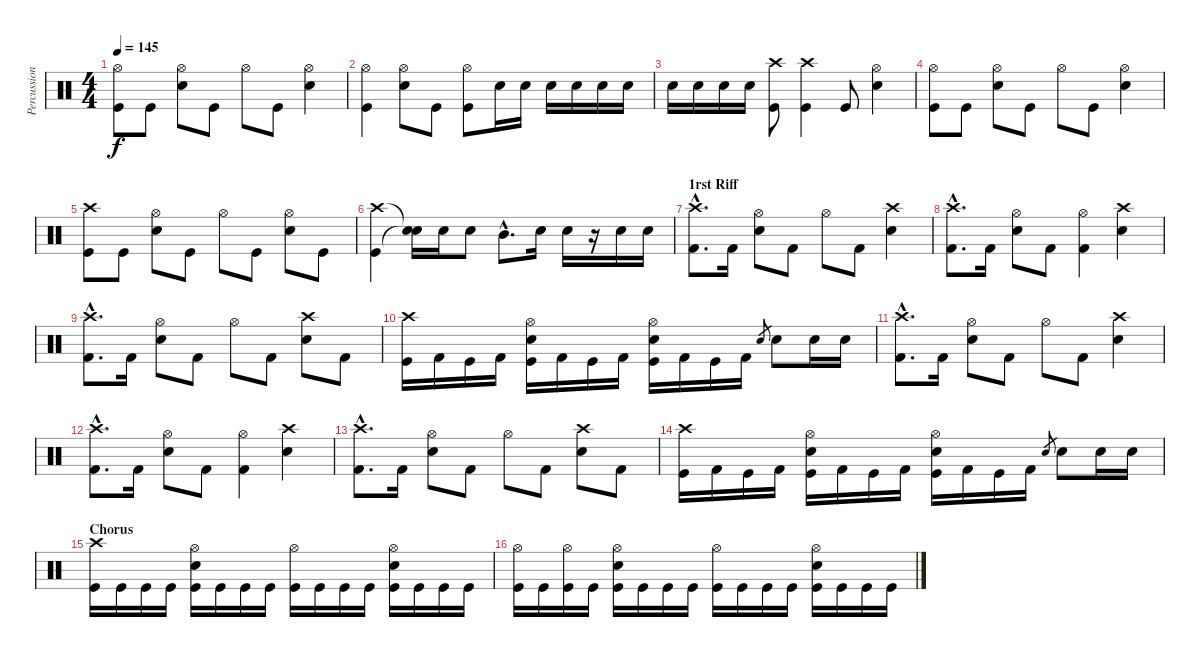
\track ("Percussions" "Percussion") {instrument percussion}
\staff {score}
\articulation defaults
\ts (4 4)
\tempo 145
\clef neutral
\ks c
("Hi-Hat (open)" "Kick (hit)").8{dy f} "Kick (hit)".8 ("Hi-Hat (open)" "Snare (hit) 2").8 "Kick (hit)".8 "Hi-Hat (open)".8 "Kick (hit)".8 ("Hi-Hat (open)" "Snare (hit) 2").4 |
("Hi-Hat (open)" "Kick (hit)").4 ("Hi-Hat (open)" "Snare (hit) 2").8 "Kick (hit)".8 ("Hi-Hat (open)" "Kick (hit)").8 "Snare (hit) 2".16 "Snare (hit) 2".16 "Snare (hit) 2".16 "Snare (hit) 2".16 "Snare (hit) 2".16 "Snare (hit) 2".16 |
"Snare (hit) 2".16 "Snare (hit) 2".16 "Snare (hit) 2".16 "Snare (hit) 2".16 ("Crash high (hit)" "Kick (hit)").8 ("Crash high (hit)" "Kick (hit)").4 "Kick (hit)".8 ("Hi-Hat (open)" "Snare (hit) 2").4 |
("Hi-Hat (open)" "Kick (hit)").8 "Kick (hit)".8 ("Hi-Hat (open)" "Snare (hit) 2").8 "Kick (hit)".8 "Hi-Hat (open)".8 "Kick (hit)".8 ("Hi-Hat (open)" "Snare (hit) 2").4 |
("Crash high (hit)" "Kick (hit)").8 "Kick (hit)".8 ("Hi-Hat (open)" "Snare (hit) 2").8 "Kick (hit)".8 "Hi-Hat (open)".8 "Kick (hit)".8 ("Hi-Hat (open)" "Snare (hit) 2").8 "Kick (hit)".8 |
("Crash high (hit)" "Kick (hit)").4 ("Snare (hit)"{t} "Snare (hit)"{t}).16 "Snare (hit) 2".16 "Snare (hit) 2".8 "Mid Tom (hit)"{hac}.8{d} "Snare (hit) 2".16 "Snare (hit) 2".16 r.16 "Snare (hit) 2".16 "Snare (hit) 2".16 |
\section ("" "1rst Riff")
("Crash high (hit)"{hac} "Kick (hit) 2"{hac}).8{d} "Kick (hit) 2".16 ("Hi-Hat (open)" "Electric Snare (hit)").8 "Kick (hit) 2".8 "Hi-Hat (open)".8 "Kick (hit) 2".8 ("Crash high (hit)" "Electric Snare (hit)").4 |
("Crash high (hit)"{hac} "Kick (hit) 2"{hac}).8{d} "Kick (hit) 2".16 ("Hi-Hat (open)" "Electric Snare (hit)").8 "Kick (hit) 2".8 ("Hi-Hat (open)" "Kick (hit) 2").4 ("Crash high (hit)" "Electric Snare (hit)").4 |
("Crash high (hit)"{hac} "Kick (hit) 2"{hac}).8{d} "Kick (hit) 2".16 ("Hi-Hat (open)" "Electric Snare (hit)").8 "Kick (hit) 2".8 "Hi-Hat (open)".8 "Kick (hit) 2".8 ("Crash high (hit)" "Electric Snare (hit)").8 "Kick (hit) 2".8 |
("Crash high (hit)" "Kick (hit)").16 "Kick (hit) 2".16 "Kick (hit)".16 "Kick (hit) 2".16 ("Hi-Hat (open)" "Electric Snare (hit)" "Kick (hit)").16 "Kick (hit) 2".16 "Kick (hit)".16 "Kick (hit) 2".16 ("Hi-Hat (open)" "Electric Snare (hit)" "Kick (hit)").16 "Kick (hit) 2".16 "Kick (hit)".16 "Kick (hit) 2".16 "Electric Snare (hit)".8{gr} "Electric Snare (hit)".8 "Electric Snare (hit)".16 "Electric Snare (hit)".16 |
("Crash high (hit)"{hac} "Kick (hit) 2"{hac}).8{d} "Kick (hit) 2".16 ("Hi-Hat (open)" "Electric Snare (hit)").8 "Kick (hit) 2".8 "Hi-Hat (open)".8 "Kick (hit) 2".8 ("Crash high (hit)" "Electric Snare (hit)").4 |
("Crash high (hit)"{hac} "Kick (hit) 2"{hac}).8{d} "Kick (hit) 2".16 ("Hi-Hat (open)" "Electric Snare (hit)").8 "Kick (hit) 2".8 ("Hi-Hat (open)" "Kick (hit) 2").4 ("Crash high (hit)" "Electric Snare (hit)").4 |
("Crash high (hit)"{hac} "Kick (hit) 2"{hac}).8{d} "Kick (hit) 2".16 ("Hi-Hat (open)" "Electric Snare (hit)").8 "Kick (hit) 2".8 "Hi-Hat (open)".8 "Kick (hit) 2".8 ("Crash high (hit)" "Electric Snare (hit)").8 "Kick (hit) 2".8 |
("Crash high (hit)" "Kick (hit)").16 "Kick (hit) 2".16 "Kick (hit)".16 "Kick (hit) 2".16 ("Hi-Hat (open)" "Electric Snare (hit)" "Kick (hit)").16 "Kick (hit) 2".16 "Kick (hit)".16 "Kick (hit) 2".16 ("Hi-Hat (open)" "Electric Snare (hit)" "Kick (hit)").16 "Kick (hit) 2".16 "Kick (hit)".16 "Kick (hit) 2".16 "Electric Snare (hit)".8{gr} "Electric Snare (hit)".8 "Electric Snare (hit)".16 "Electric Snare (hit)".16 |
\section ("" "Chorus")
("Crash high (hit)" "Kick (hit)").16 "Kick (hit)".16 "Kick (hit)".16 "Kick (hit)".16 ("Hi-Hat (open)" "Snare (hit) 2" "Kick (hit)").16 "Kick (hit)".16 "Kick (hit)".16 "Kick (hit)".16 ("Hi-Hat (open)" "Kick (hit)").16 "Kick (hit)".16 "Kick (hit)".16 "Kick (hit)".16 ("Hi-Hat (open)" "Snare (hit) 2" "Kick (hit)").16 "Kick (hit)".16 "Kick (hit)".16 "Kick (hit)".16 |
("Hi-Hat (open)" "Kick (hit)").16 "Kick (hit)".16 ("Hi-Hat (open)" "Kick (hit)").16 "Kick (hit)".16 ("Hi-Hat (open)" "Snare (hit) 2" "Kick (hit)").16 "Kick (hit)".16 "Kick (hit)".16 "Kick (hit)".16 ("Hi-Hat (open)" "Kick (hit)").16 "Kick (hit)".16 "Kick (hit)".16 "Kick (hit)".16 ("Hi-Hat (open)" "Snare (hit) 2" "Kick (hit)").16 "Kick (hit)".16 "Kick (hit)".16 "Kick (hit)".16
